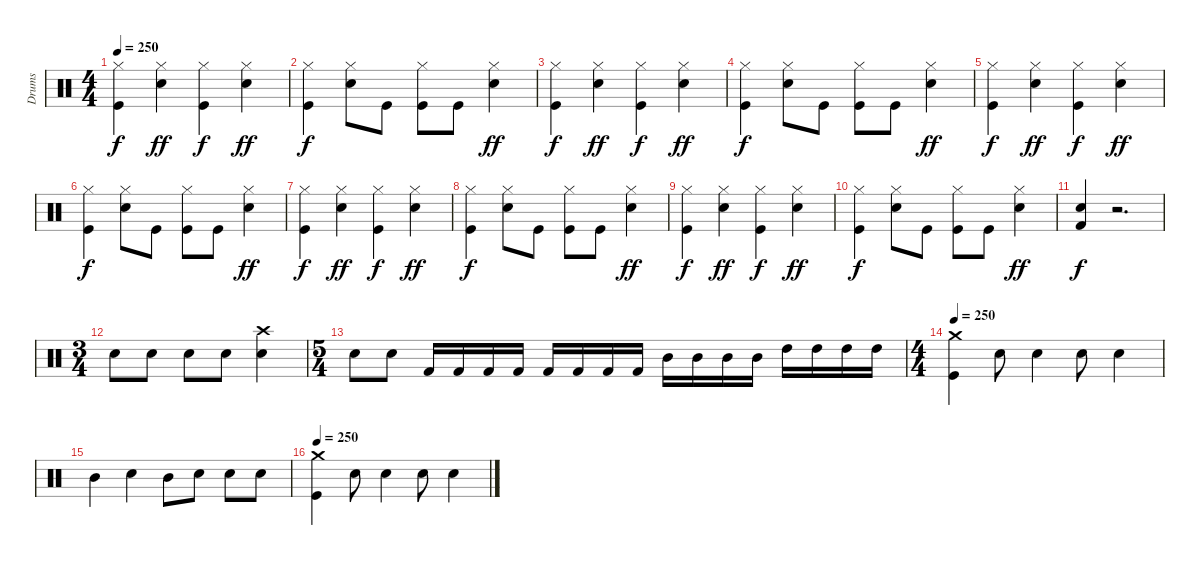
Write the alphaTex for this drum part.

\track ("Drums" "Drums") {instrument percussion}
\staff {score}
\articulation defaults
\ts (4 4)
\tempo 250
\clef neutral
\ks c
("Hi-Hat (closed)" "Kick (hit)").4{dy f} ("Hi-Hat (closed)" "Snare (hit) 2").4{dy ff} ("Hi-Hat (closed)" "Kick (hit)").4{dy f} ("Hi-Hat (closed)" "Snare (hit) 2").4{dy ff} |
("Hi-Hat (closed)" "Kick (hit)").4{dy f} ("Hi-Hat (closed)" "Snare (hit) 2").8 "Kick (hit)".8 ("Hi-Hat (closed)" "Kick (hit)").8 "Kick (hit)".8 ("Hi-Hat (closed)" "Snare (hit) 2").4{dy ff} |
("Hi-Hat (closed)" "Kick (hit)").4{dy f} ("Hi-Hat (closed)" "Snare (hit) 2").4{dy ff} ("Hi-Hat (closed)" "Kick (hit)").4{dy f} ("Hi-Hat (closed)" "Snare (hit) 2").4{dy ff} |
("Hi-Hat (closed)" "Kick (hit)").4{dy f} ("Hi-Hat (closed)" "Snare (hit) 2").8 "Kick (hit)".8 ("Hi-Hat (closed)" "Kick (hit)").8 "Kick (hit)".8 ("Hi-Hat (closed)" "Snare (hit) 2").4{dy ff} |
("Hi-Hat (closed)" "Kick (hit)").4{dy f} ("Hi-Hat (closed)" "Snare (hit) 2").4{dy ff} ("Hi-Hat (closed)" "Kick (hit)").4{dy f} ("Hi-Hat (closed)" "Snare (hit) 2").4{dy ff} |
("Hi-Hat (closed)" "Kick (hit)").4{dy f} ("Hi-Hat (closed)" "Snare (hit) 2").8 "Kick (hit)".8 ("Hi-Hat (closed)" "Kick (hit)").8 "Kick (hit)".8 ("Hi-Hat (closed)" "Snare (hit) 2").4{dy ff} |
("Hi-Hat (closed)" "Kick (hit)").4{dy f} ("Hi-Hat (closed)" "Snare (hit) 2").4{dy ff} ("Hi-Hat (closed)" "Kick (hit)").4{dy f} ("Hi-Hat (closed)" "Snare (hit) 2").4{dy ff} |
("Hi-Hat (closed)" "Kick (hit)").4{dy f} ("Hi-Hat (closed)" "Snare (hit) 2").8 "Kick (hit)".8 ("Hi-Hat (closed)" "Kick (hit)").8 "Kick (hit)".8 ("Hi-Hat (closed)" "Snare (hit) 2").4{dy ff} |
("Hi-Hat (closed)" "Kick (hit)").4{dy f} ("Hi-Hat (closed)" "Snare (hit) 2").4{dy ff} ("Hi-Hat (closed)" "Kick (hit)").4{dy f} ("Hi-Hat (closed)" "Snare (hit) 2").4{dy ff} |
("Hi-Hat (closed)" "Kick (hit)").4{dy f} ("Hi-Hat (closed)" "Snare (hit) 2").8 "Kick (hit)".8 ("Hi-Hat (closed)" "Kick (hit)").8 "Kick (hit)".8 ("Hi-Hat (closed)" "Snare (hit) 2").4{dy ff} |
("Electric Snare (hit)" "Kick (hit) 2").4{dy f} r.2{d} |
\ts (3 4)
"Electric Snare (hit)".8 "Electric Snare (hit)".8 "Electric Snare (hit)".8 "Electric Snare (hit)".8 ("Electric Snare (hit)" "Crash high (hit)").4 |
\ts (5 4)
"Electric Snare (hit)".8 "Electric Snare (hit)".8 "Kick (hit) 2".16 "Kick (hit) 2".16 "Kick (hit) 2".16 "Kick (hit) 2".16 "Kick (hit) 2".16 "Kick (hit) 2".16 "Kick (hit) 2".16 "Kick (hit) 2".16 "Mid Tom (hit)".16 "Mid Tom (hit)".16 "Mid Tom (hit)".16 "Mid Tom (hit)".16 "High Tom (hit)".16 "High Tom (hit)".16 "High Tom (hit)".16 "High Tom (hit)".16 |
\ts (4 4)
\tempo 250
("Kick (hit)" "Crash medium (hit)").4 "Snare (hit) 2".8 "Snare (hit) 2".4 "Snare (hit) 2".8 "Snare (hit) 2".4 |
"Mid Tom (hit)".4 "Snare (hit) 2".4 "Mid Tom (hit)".8 "Snare (hit) 2".8 "Snare (hit) 2".8 "Snare (hit) 2".8 |
\tempo 250
("Kick (hit)" "Crash medium (hit)").4 "Snare (hit) 2".8 "Snare (hit) 2".4 "Snare (hit) 2".8 "Snare (hit) 2".4
